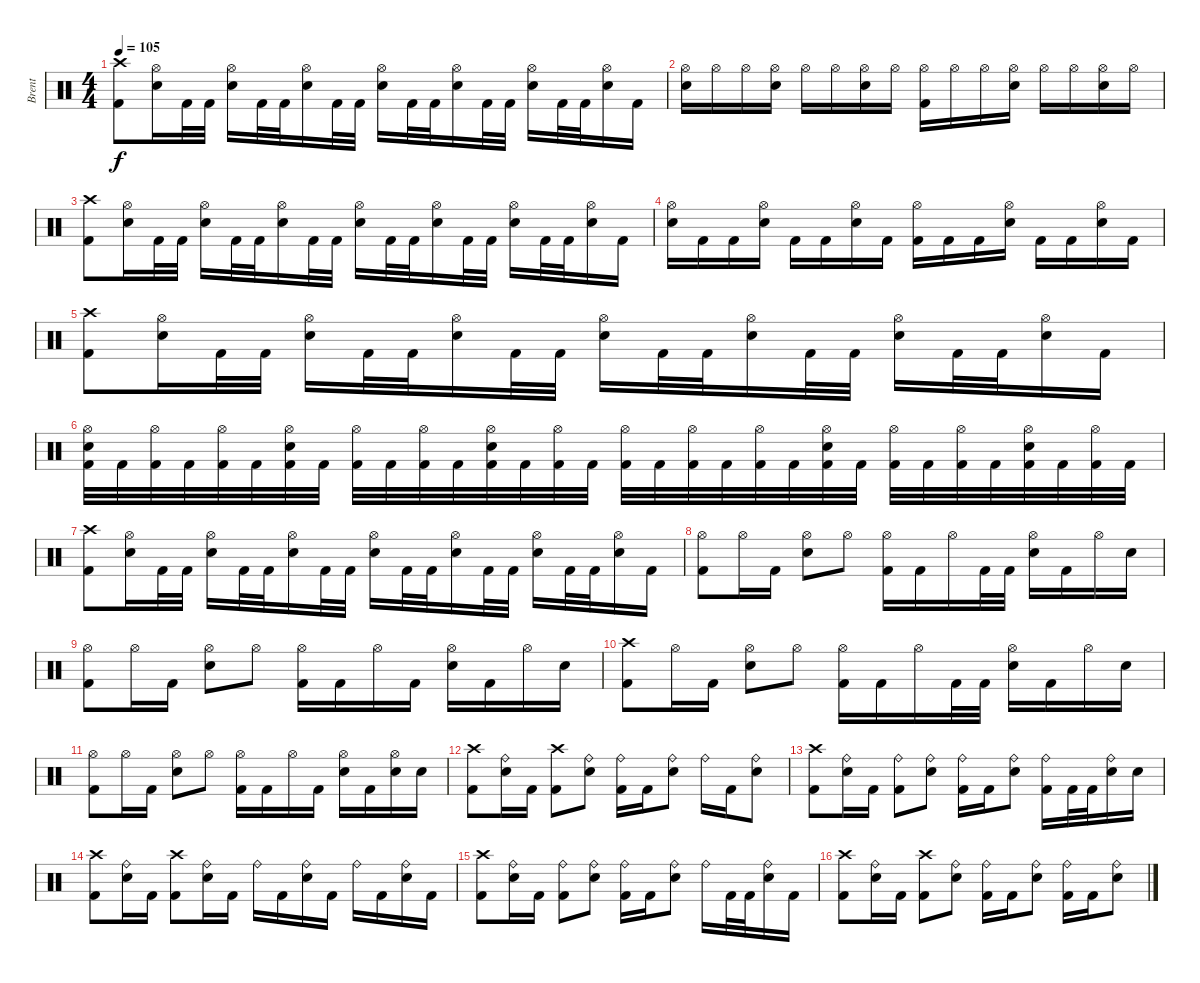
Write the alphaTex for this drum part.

\track ("Brent" "Brent") {instrument percussion}
\staff {score}
\articulation defaults
\ts (4 4)
\tempo 105
\clef neutral
\ks c
("Crash high (hit)" "Kick (hit) 2").8{dy f} ("Hi-Hat (open)" "Snare (hit) 2").16 "Kick (hit) 2".32 "Kick (hit) 2".32 ("Hi-Hat (open)" "Snare (hit) 2").16 "Kick (hit) 2".32 "Kick (hit) 2".32 ("Hi-Hat (open)" "Snare (hit) 2").16 "Kick (hit) 2".32 "Kick (hit) 2".32 ("Hi-Hat (open)" "Snare (hit) 2").16 "Kick (hit) 2".32 "Kick (hit) 2".32 ("Hi-Hat (open)" "Snare (hit) 2").16 "Kick (hit) 2".32 "Kick (hit) 2".32 ("Hi-Hat (open)" "Snare (hit) 2").16 "Kick (hit) 2".32 "Kick (hit) 2".32 ("Hi-Hat (open)" "Snare (hit) 2").16 "Kick (hit) 2".16 |
("Hi-Hat (open)" "Snare (hit) 2").16 "Hi-Hat (open)".16 "Hi-Hat (open)".16 ("Hi-Hat (open)" "Snare (hit) 2").16 "Hi-Hat (open)".16 "Hi-Hat (open)".16 ("Hi-Hat (open)" "Snare (hit) 2").16 "Hi-Hat (open)".16 ("Hi-Hat (open)" "Kick (hit) 2").16 "Hi-Hat (open)".16 "Hi-Hat (open)".16 ("Hi-Hat (open)" "Snare (hit) 2").16 "Hi-Hat (open)".16 "Hi-Hat (open)".16 ("Hi-Hat (open)" "Snare (hit) 2").16 "Hi-Hat (open)".16 |
("Crash high (hit)" "Kick (hit) 2").8 ("Hi-Hat (open)" "Snare (hit) 2").16 "Kick (hit) 2".32 "Kick (hit) 2".32 ("Hi-Hat (open)" "Snare (hit) 2").16 "Kick (hit) 2".32 "Kick (hit) 2".32 ("Hi-Hat (open)" "Snare (hit) 2").16 "Kick (hit) 2".32 "Kick (hit) 2".32 ("Hi-Hat (open)" "Snare (hit) 2").16 "Kick (hit) 2".32 "Kick (hit) 2".32 ("Hi-Hat (open)" "Snare (hit) 2").16 "Kick (hit) 2".32 "Kick (hit) 2".32 ("Hi-Hat (open)" "Snare (hit) 2").16 "Kick (hit) 2".32 "Kick (hit) 2".32 ("Hi-Hat (open)" "Snare (hit) 2").16 "Kick (hit) 2".16 |
("Hi-Hat (open)" "Snare (hit) 2").16 "Kick (hit) 2".16 "Kick (hit) 2".16 ("Hi-Hat (open)" "Snare (hit) 2").16 "Kick (hit) 2".16 "Kick (hit) 2".16 ("Hi-Hat (open)" "Snare (hit) 2").16 "Kick (hit) 2".16 ("Hi-Hat (open)" "Kick (hit) 2").16 "Kick (hit) 2".16 "Kick (hit) 2".16 ("Hi-Hat (open)" "Snare (hit) 2").16 "Kick (hit) 2".16 "Kick (hit) 2".16 ("Hi-Hat (open)" "Snare (hit) 2").16 "Kick (hit) 2".16 |
("Crash high (hit)" "Kick (hit) 2").8 ("Hi-Hat (open)" "Snare (hit) 2").16 "Kick (hit) 2".32 "Kick (hit) 2".32 ("Hi-Hat (open)" "Snare (hit) 2").16 "Kick (hit) 2".32 "Kick (hit) 2".32 ("Hi-Hat (open)" "Snare (hit) 2").16 "Kick (hit) 2".32 "Kick (hit) 2".32 ("Hi-Hat (open)" "Snare (hit) 2").16 "Kick (hit) 2".32 "Kick (hit) 2".32 ("Hi-Hat (open)" "Snare (hit) 2").16 "Kick (hit) 2".32 "Kick (hit) 2".32 ("Hi-Hat (open)" "Snare (hit) 2").16 "Kick (hit) 2".32 "Kick (hit) 2".32 ("Hi-Hat (open)" "Snare (hit) 2").16 "Kick (hit) 2".16 |
("Hi-Hat (open)" "Snare (hit) 2" "Kick (hit) 2").32 "Kick (hit) 2".32 ("Hi-Hat (open)" "Kick (hit) 2").32 "Kick (hit) 2".32 ("Hi-Hat (open)" "Kick (hit) 2").32 "Kick (hit) 2".32 ("Hi-Hat (open)" "Snare (hit) 2" "Kick (hit) 2").32 "Kick (hit) 2".32 ("Hi-Hat (open)" "Kick (hit) 2").32 "Kick (hit) 2".32 ("Hi-Hat (open)" "Kick (hit) 2").32 "Kick (hit) 2".32 ("Hi-Hat (open)" "Snare (hit) 2" "Kick (hit) 2").32 "Kick (hit) 2".32 ("Hi-Hat (open)" "Kick (hit) 2").32 "Kick (hit) 2".32 ("Hi-Hat (open)" "Kick (hit) 2").32 "Kick (hit) 2".32 ("Hi-Hat (open)" "Kick (hit) 2").32 "Kick (hit) 2".32 ("Hi-Hat (open)" "Kick (hit) 2").32 "Kick (hit) 2".32 ("Hi-Hat (open)" "Snare (hit) 2" "Kick (hit) 2").32 "Kick (hit) 2".32 ("Hi-Hat (open)" "Kick (hit) 2").32 "Kick (hit) 2".32 ("Hi-Hat (open)" "Kick (hit) 2").32 "Kick (hit) 2".32 ("Hi-Hat (open)" "Snare (hit) 2" "Kick (hit) 2").32 "Kick (hit) 2".32 ("Hi-Hat (open)" "Kick (hit) 2").32 "Kick (hit) 2".32 |
("Crash high (hit)" "Kick (hit) 2").8 ("Hi-Hat (open)" "Snare (hit) 2").16 "Kick (hit) 2".32 "Kick (hit) 2".32 ("Hi-Hat (open)" "Snare (hit) 2").16 "Kick (hit) 2".32 "Kick (hit) 2".32 ("Hi-Hat (open)" "Snare (hit) 2").16 "Kick (hit) 2".32 "Kick (hit) 2".32 ("Hi-Hat (open)" "Snare (hit) 2").16 "Kick (hit) 2".32 "Kick (hit) 2".32 ("Hi-Hat (open)" "Snare (hit) 2").16 "Kick (hit) 2".32 "Kick (hit) 2".32 ("Hi-Hat (open)" "Snare (hit) 2").16 "Kick (hit) 2".32 "Kick (hit) 2".32 ("Hi-Hat (open)" "Snare (hit) 2").16 "Kick (hit) 2".16 |
("Hi-Hat (open)" "Kick (hit) 2").8 "Hi-Hat (open)".16 "Kick (hit) 2".16 ("Hi-Hat (open)" "Snare (hit) 2").8 "Hi-Hat (open)".8 ("Hi-Hat (open)" "Kick (hit) 2").16 "Kick (hit) 2".16 "Hi-Hat (open)".16 "Kick (hit) 2".32 "Kick (hit) 2".32 ("Hi-Hat (open)" "Snare (hit) 2").16 "Kick (hit) 2".16 "Hi-Hat (open)".16 "Snare (hit) 2".16 |
("Hi-Hat (open)" "Kick (hit) 2").8 "Hi-Hat (open)".16 "Kick (hit) 2".16 ("Hi-Hat (open)" "Snare (hit) 2").8 "Hi-Hat (open)".8 ("Hi-Hat (open)" "Kick (hit) 2").16 "Kick (hit) 2".16 "Hi-Hat (open)".16 "Kick (hit) 2".16 ("Hi-Hat (open)" "Snare (hit) 2").16 "Kick (hit) 2".16 "Hi-Hat (open)".16 "Snare (hit) 2".16 |
("Crash high (hit)" "Kick (hit) 2").8 "Hi-Hat (open)".16 "Kick (hit) 2".16 ("Hi-Hat (open)" "Snare (hit) 2").8 "Hi-Hat (open)".8 ("Hi-Hat (open)" "Kick (hit) 2").16 "Kick (hit) 2".16 "Hi-Hat (open)".16 "Kick (hit) 2".32 "Kick (hit) 2".32 ("Hi-Hat (open)" "Snare (hit) 2").16 "Kick (hit) 2".16 "Hi-Hat (open)".16 "Snare (hit) 2".16 |
("Hi-Hat (open)" "Kick (hit) 2").8 "Hi-Hat (open)".16 "Kick (hit) 2".16 ("Hi-Hat (open)" "Snare (hit) 2").8 "Hi-Hat (open)".8 ("Hi-Hat (open)" "Kick (hit) 2").16 "Kick (hit) 2".16 "Hi-Hat (open)".16 "Kick (hit) 2".16 ("Hi-Hat (open)" "Snare (hit) 2").16 "Kick (hit) 2".16 ("Hi-Hat (open)" "Snare (hit) 2").16 "Snare (hit) 2".16 |
("Crash high (hit)" "Kick (hit) 2").8 ("Ride (bell)" "Snare (hit) 2").16 "Kick (hit) 2".16 ("Crash high (hit)" "Kick (hit) 2").8 ("Ride (bell)" "Snare (hit) 2").8 ("Ride (bell)" "Kick (hit) 2").16 "Kick (hit) 2".16 ("Ride (bell)" "Snare (hit) 2").8 "Ride (bell)".16 "Kick (hit) 2".16 ("Ride (bell)" "Snare (hit) 2").8 |
("Crash high (hit)" "Kick (hit) 2").8 ("Ride (bell)" "Snare (hit) 2").16 "Kick (hit) 2".16 ("Ride (bell)" "Kick (hit) 2").8 ("Ride (bell)" "Snare (hit) 2").8 ("Ride (bell)" "Kick (hit) 2").16 "Kick (hit) 2".16 ("Ride (bell)" "Snare (hit) 2").8 ("Ride (bell)" "Kick (hit) 2").16 "Kick (hit) 2".32 "Kick (hit) 2".32 ("Ride (bell)" "Snare (hit) 2").16 "Snare (hit) 2".16 |
("Crash high (hit)" "Kick (hit) 2").8 ("Ride (bell)" "Snare (hit) 2").16 "Kick (hit) 2".16 ("Crash high (hit)" "Kick (hit) 2").8 ("Ride (bell)" "Snare (hit) 2").16 "Kick (hit) 2".16 "Ride (bell)".16 "Kick (hit) 2".16 ("Ride (bell)" "Snare (hit) 2").16 "Kick (hit) 2".16 "Ride (bell)".16 "Kick (hit) 2".16 ("Ride (bell)" "Snare (hit) 2").16 "Kick (hit) 2".16 |
("Crash high (hit)" "Kick (hit) 2").8 ("Ride (bell)" "Snare (hit) 2").16 "Kick (hit) 2".16 ("Ride (bell)" "Kick (hit) 2").8 ("Ride (bell)" "Snare (hit) 2").8 ("Ride (bell)" "Kick (hit) 2").16 "Kick (hit) 2".16 ("Ride (bell)" "Snare (hit) 2").8 "Ride (bell)".16 "Kick (hit) 2".32 "Kick (hit) 2".32 ("Ride (bell)" "Snare (hit) 2").16 "Kick (hit) 2".16 |
("Crash high (hit)" "Kick (hit) 2").8 ("Ride (bell)" "Snare (hit) 2").16 "Kick (hit) 2".16 ("Crash high (hit)" "Kick (hit) 2").8 ("Ride (bell)" "Snare (hit) 2").8 ("Ride (bell)" "Kick (hit) 2").16 "Kick (hit) 2".16 ("Ride (bell)" "Snare (hit) 2").8 ("Ride (bell)" "Kick (hit) 2").16 "Kick (hit) 2".16 ("Ride (bell)" "Snare (hit) 2").8
